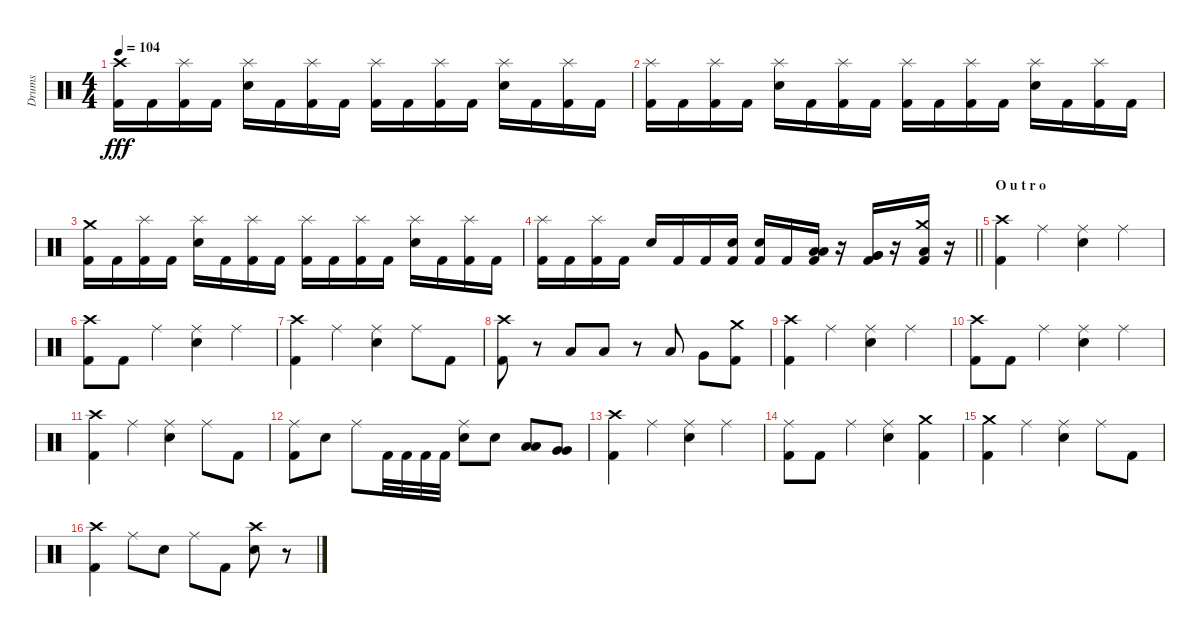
\track ("Drums" "Drums") {instrument percussion}
\staff {score}
\articulation defaults
\ts (4 4)
\tempo 104
\clef neutral
\ks c
("Crash high (hit)" "Kick (hit) 2").16{dy fff} "Kick (hit) 2".16 ("Splash (hit)" "Kick (hit) 2").16 "Kick (hit) 2".16 ("Splash (hit)" "Snare (hit) 2").16 "Kick (hit) 2".16 ("Splash (hit)" "Kick (hit) 2").16 "Kick (hit) 2".16 ("Splash (hit)" "Kick (hit) 2").16 "Kick (hit) 2".16 ("Splash (hit)" "Kick (hit) 2").16 "Kick (hit) 2".16 ("Splash (hit)" "Snare (hit) 2").16 "Kick (hit) 2".16 ("Splash (hit)" "Kick (hit) 2").16 "Kick (hit) 2".16 |
("Splash (hit)" "Kick (hit) 2").16 "Kick (hit) 2".16 ("Splash (hit)" "Kick (hit) 2").16 "Kick (hit) 2".16 ("Splash (hit)" "Snare (hit) 2").16 "Kick (hit) 2".16 ("Splash (hit)" "Kick (hit) 2").16 "Kick (hit) 2".16 ("Splash (hit)" "Kick (hit) 2").16 "Kick (hit) 2".16 ("Splash (hit)" "Kick (hit) 2").16 "Kick (hit) 2".16 ("Splash (hit)" "Snare (hit) 2").16 "Kick (hit) 2".16 ("Splash (hit)" "Kick (hit) 2").16 "Kick (hit) 2".16 |
("Crash medium (hit)" "Kick (hit) 2").16 "Kick (hit) 2".16 ("Splash (hit)" "Kick (hit) 2").16 "Kick (hit) 2".16 ("Splash (hit)" "Snare (hit) 2").16 "Kick (hit) 2".16 ("Splash (hit)" "Kick (hit) 2").16 "Kick (hit) 2".16 ("Splash (hit)" "Kick (hit) 2").16 "Kick (hit) 2".16 ("Splash (hit)" "Kick (hit) 2").16 "Kick (hit) 2".16 ("Splash (hit)" "Snare (hit) 2").16 "Kick (hit) 2".16 ("Splash (hit)" "Kick (hit) 2").16 "Kick (hit) 2".16 |
\barLineRight lightlight
("Splash (hit)" "Kick (hit) 2").16 "Kick (hit) 2".16 ("Splash (hit)" "Kick (hit) 2").16 "Kick (hit) 2".16 "Snare (hit) 2".16 "Kick (hit) 2".16 "Kick (hit) 2".16 ("Snare (hit) 2" "Kick (hit) 2").16 ("Snare (hit) 2" "Kick (hit) 2").16 "Kick (hit) 2".16 ("Low Tom (hit)" "Low Tom (hit)" "Kick (hit) 2").16 r.16 ("Very Low Tom (hit)" "Very Low Tom (hit)" "Kick (hit) 2").16 r.16 ("Crash medium (hit)" "Low Floor Tom (hit)" "Kick (hit) 2").16 r.16 |
\section ("" "O u t r o")
("Crash high (hit)" "Kick (hit) 2").4 "Ride (middle)".4 ("Ride (middle)" "Snare (hit) 2").4 "Ride (middle)".4 |
("Crash high (hit)" "Kick (hit) 2").8 "Kick (hit) 2".8 "Ride (middle)".4 ("Ride (middle)" "Snare (hit) 2").4 "Ride (middle)".4 |
("Crash high (hit)" "Kick (hit) 2").4 "Ride (middle)".4 ("Ride (middle)" "Snare (hit) 2").4 "Ride (middle)".8 "Kick (hit) 2".8 |
("Crash high (hit)" "Kick (hit) 2").8 r.8 "Low Tom (hit)".8 "Low Tom (hit)".8 r.8 "Low Tom (hit)".8 "Very Low Tom (hit)".8 ("Crash medium (hit)" "Kick (hit) 2").8 |
("Crash high (hit)" "Kick (hit) 2").4 "Ride (middle)".4 ("Ride (middle)" "Snare (hit) 2").4 "Ride (middle)".4 |
("Crash high (hit)" "Kick (hit) 2").8 "Kick (hit) 2".8 "Ride (middle)".4 ("Ride (middle)" "Snare (hit) 2").4 "Ride (middle)".4 |
("Crash high (hit)" "Kick (hit) 2").4 "Ride (middle)".4 ("Ride (middle)" "Snare (hit) 2").4 "Ride (middle)".8 "Kick (hit) 2".8 |
("Ride (middle)" "Kick (hit) 2").8 "Snare (hit) 2".8 "Ride (middle)".8 "Kick (hit) 2".32 "Kick (hit) 2".32 "Kick (hit) 2".32 "Kick (hit) 2".32 ("Ride (middle)" "Snare (hit) 2").8 "Snare (hit) 2".8 ("Low Tom (hit)" "Low Tom (hit)").8 ("Very Low Tom (hit)" "Very Low Tom (hit)").8 |
("Crash high (hit)" "Kick (hit) 2").4 "Ride (middle)".4 ("Ride (middle)" "Snare (hit) 2").4 "Ride (middle)".4 |
("Ride (middle)" "Kick (hit) 2").8 "Kick (hit) 2".8 "Ride (middle)".4 ("Ride (middle)" "Snare (hit) 2").4 ("Crash medium (hit)" "Kick (hit) 2").4 |
("Crash medium (hit)" "Kick (hit) 2").4 "Ride (middle)".4 ("Ride (middle)" "Snare (hit) 2").4 "Ride (middle)".8 "Kick (hit) 2".8 |
("Crash high (hit)" "Kick (hit) 2").4 "Ride (middle)".8 "Snare (hit) 2".8 "Ride (middle)".8 "Kick (hit) 2".8 ("Crash high (hit)" "Snare (hit) 2").8 r.8
